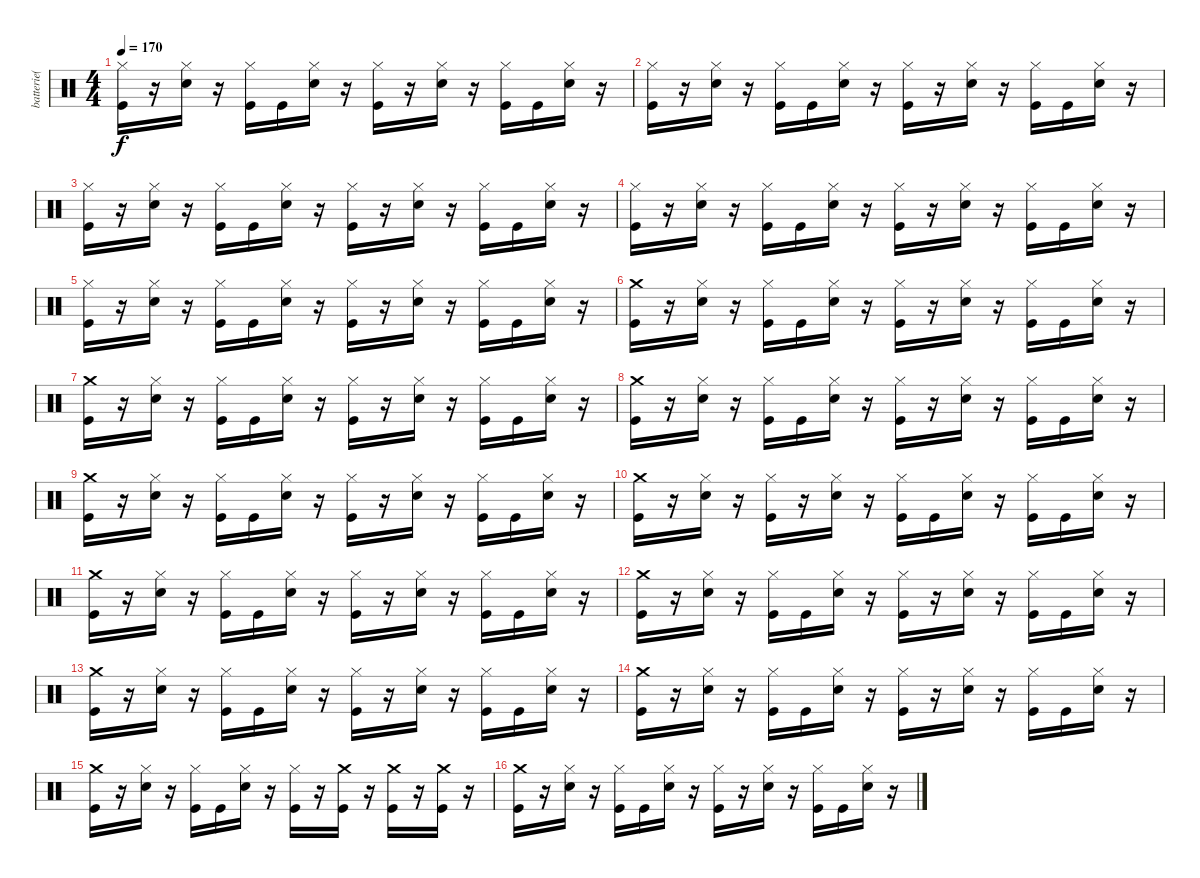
\track ("batterie( Yureesh )" "batterie( ") {instrument percussion}
\staff {score}
\articulation defaults
\ts (4 4)
\tempo 170
\clef neutral
\ks c
("Hi-Hat (closed)" "Kick (hit)").16{dy f} r.16 ("Hi-Hat (closed)" "Snare (hit) 2").16 r.16 ("Hi-Hat (closed)" "Kick (hit)").16 "Kick (hit)".16 ("Hi-Hat (closed)" "Snare (hit) 2").16 r.16 ("Hi-Hat (closed)" "Kick (hit)").16 r.16 ("Hi-Hat (closed)" "Snare (hit) 2").16 r.16 ("Hi-Hat (closed)" "Kick (hit)").16 "Kick (hit)".16 ("Hi-Hat (closed)" "Snare (hit) 2").16 r.16 |
("Hi-Hat (closed)" "Kick (hit)").16 r.16 ("Hi-Hat (closed)" "Snare (hit) 2").16 r.16 ("Hi-Hat (closed)" "Kick (hit)").16 "Kick (hit)".16 ("Hi-Hat (closed)" "Snare (hit) 2").16 r.16 ("Hi-Hat (closed)" "Kick (hit)").16 r.16 ("Hi-Hat (closed)" "Snare (hit) 2").16 r.16 ("Hi-Hat (closed)" "Kick (hit)").16 "Kick (hit)".16 ("Hi-Hat (closed)" "Snare (hit) 2").16 r.16 |
("Hi-Hat (closed)" "Kick (hit)").16 r.16 ("Hi-Hat (closed)" "Snare (hit) 2").16 r.16 ("Hi-Hat (closed)" "Kick (hit)").16 "Kick (hit)".16 ("Hi-Hat (closed)" "Snare (hit) 2").16 r.16 ("Hi-Hat (closed)" "Kick (hit)").16 r.16 ("Hi-Hat (closed)" "Snare (hit) 2").16 r.16 ("Hi-Hat (closed)" "Kick (hit)").16 "Kick (hit)".16 ("Hi-Hat (closed)" "Snare (hit) 2").16 r.16 |
("Hi-Hat (closed)" "Kick (hit)").16 r.16 ("Hi-Hat (closed)" "Snare (hit) 2").16 r.16 ("Hi-Hat (closed)" "Kick (hit)").16 "Kick (hit)".16 ("Hi-Hat (closed)" "Snare (hit) 2").16 r.16 ("Hi-Hat (closed)" "Kick (hit)").16 r.16 ("Hi-Hat (closed)" "Snare (hit) 2").16 r.16 ("Hi-Hat (closed)" "Kick (hit)").16 "Kick (hit)".16 ("Hi-Hat (closed)" "Snare (hit) 2").16 r.16 |
("Hi-Hat (closed)" "Kick (hit)").16 r.16 ("Hi-Hat (closed)" "Snare (hit) 2").16 r.16 ("Hi-Hat (closed)" "Kick (hit)").16 "Kick (hit)".16 ("Hi-Hat (closed)" "Snare (hit) 2").16 r.16 ("Hi-Hat (closed)" "Kick (hit)").16 r.16 ("Hi-Hat (closed)" "Snare (hit) 2").16 r.16 ("Hi-Hat (closed)" "Kick (hit)").16 "Kick (hit)".16 ("Hi-Hat (closed)" "Snare (hit) 2").16 r.16 |
("Crash medium (hit)" "Kick (hit)").16 r.16 ("Hi-Hat (closed)" "Snare (hit) 2").16 r.16 ("Hi-Hat (closed)" "Kick (hit)").16 "Kick (hit)".16 ("Hi-Hat (closed)" "Snare (hit) 2").16 r.16 ("Hi-Hat (closed)" "Kick (hit)").16 r.16 ("Hi-Hat (closed)" "Snare (hit) 2").16 r.16 ("Hi-Hat (closed)" "Kick (hit)").16 "Kick (hit)".16 ("Hi-Hat (closed)" "Snare (hit) 2").16 r.16 |
("Crash medium (hit)" "Kick (hit)").16 r.16 ("Hi-Hat (closed)" "Snare (hit) 2").16 r.16 ("Hi-Hat (closed)" "Kick (hit)").16 "Kick (hit)".16 ("Hi-Hat (closed)" "Snare (hit) 2").16 r.16 ("Hi-Hat (closed)" "Kick (hit)").16 r.16 ("Hi-Hat (closed)" "Snare (hit) 2").16 r.16 ("Hi-Hat (closed)" "Kick (hit)").16 "Kick (hit)".16 ("Hi-Hat (closed)" "Snare (hit) 2").16 r.16 |
("Crash medium (hit)" "Kick (hit)").16 r.16 ("Hi-Hat (closed)" "Snare (hit) 2").16 r.16 ("Hi-Hat (closed)" "Kick (hit)").16 "Kick (hit)".16 ("Hi-Hat (closed)" "Snare (hit) 2").16 r.16 ("Hi-Hat (closed)" "Kick (hit)").16 r.16 ("Hi-Hat (closed)" "Snare (hit) 2").16 r.16 ("Hi-Hat (closed)" "Kick (hit)").16 "Kick (hit)".16 ("Hi-Hat (closed)" "Snare (hit) 2").16 r.16 |
("Crash medium (hit)" "Kick (hit)").16 r.16 ("Hi-Hat (closed)" "Snare (hit) 2").16 r.16 ("Hi-Hat (closed)" "Kick (hit)").16 "Kick (hit)".16 ("Hi-Hat (closed)" "Snare (hit) 2").16 r.16 ("Hi-Hat (closed)" "Kick (hit)").16 r.16 ("Hi-Hat (closed)" "Snare (hit) 2").16 r.16 ("Hi-Hat (closed)" "Kick (hit)").16 "Kick (hit)".16 ("Hi-Hat (closed)" "Snare (hit) 2").16 r.16 |
("Crash medium (hit)" "Kick (hit)").16 r.16 ("Hi-Hat (closed)" "Snare (hit) 2").16 r.16 ("Hi-Hat (closed)" "Kick (hit)").16 r.16 ("Hi-Hat (closed)" "Snare (hit) 2").16 r.16 ("Hi-Hat (closed)" "Kick (hit)").16 "Kick (hit)".16 ("Hi-Hat (closed)" "Snare (hit) 2").16 r.16 ("Hi-Hat (closed)" "Kick (hit)").16 "Kick (hit)".16 ("Hi-Hat (closed)" "Snare (hit) 2").16 r.16 |
("Crash medium (hit)" "Kick (hit)").16 r.16 ("Hi-Hat (closed)" "Snare (hit) 2").16 r.16 ("Hi-Hat (closed)" "Kick (hit)").16 "Kick (hit)".16 ("Hi-Hat (closed)" "Snare (hit) 2").16 r.16 ("Hi-Hat (closed)" "Kick (hit)").16 r.16 ("Hi-Hat (closed)" "Snare (hit) 2").16 r.16 ("Hi-Hat (closed)" "Kick (hit)").16 "Kick (hit)".16 ("Hi-Hat (closed)" "Snare (hit) 2").16 r.16 |
("Crash medium (hit)" "Kick (hit)").16 r.16 ("Hi-Hat (closed)" "Snare (hit) 2").16 r.16 ("Hi-Hat (closed)" "Kick (hit)").16 "Kick (hit)".16 ("Hi-Hat (closed)" "Snare (hit) 2").16 r.16 ("Hi-Hat (closed)" "Kick (hit)").16 r.16 ("Hi-Hat (closed)" "Snare (hit) 2").16 r.16 ("Hi-Hat (closed)" "Kick (hit)").16 "Kick (hit)".16 ("Hi-Hat (closed)" "Snare (hit) 2").16 r.16 |
("Crash medium (hit)" "Kick (hit)").16 r.16 ("Hi-Hat (closed)" "Snare (hit) 2").16 r.16 ("Hi-Hat (closed)" "Kick (hit)").16 "Kick (hit)".16 ("Hi-Hat (closed)" "Snare (hit) 2").16 r.16 ("Hi-Hat (closed)" "Kick (hit)").16 r.16 ("Hi-Hat (closed)" "Snare (hit) 2").16 r.16 ("Hi-Hat (closed)" "Kick (hit)").16 "Kick (hit)".16 ("Hi-Hat (closed)" "Snare (hit) 2").16 r.16 |
("Crash medium (hit)" "Kick (hit)").16 r.16 ("Hi-Hat (closed)" "Snare (hit) 2").16 r.16 ("Hi-Hat (closed)" "Kick (hit)").16 "Kick (hit)".16 ("Hi-Hat (closed)" "Snare (hit) 2").16 r.16 ("Hi-Hat (closed)" "Kick (hit)").16 r.16 ("Hi-Hat (closed)" "Snare (hit) 2").16 r.16 ("Hi-Hat (closed)" "Kick (hit)").16 "Kick (hit)".16 ("Hi-Hat (closed)" "Snare (hit) 2").16 r.16 |
("Crash medium (hit)" "Kick (hit)").16 r.16 ("Hi-Hat (closed)" "Snare (hit) 2").16 r.16 ("Hi-Hat (closed)" "Kick (hit)").16 "Kick (hit)".16 ("Hi-Hat (closed)" "Snare (hit) 2").16 r.16 ("Hi-Hat (closed)" "Kick (hit)").16 r.16 ("Crash medium (hit)" "Kick (hit)").16 r.16 ("Crash medium (hit)" "Kick (hit)").16 r.16 ("Crash medium (hit)" "Kick (hit)").16 r.16 |
("Crash medium (hit)" "Kick (hit)").16 r.16 ("Hi-Hat (closed)" "Snare (hit) 2").16 r.16 ("Hi-Hat (closed)" "Kick (hit)").16 "Kick (hit)".16 ("Hi-Hat (closed)" "Snare (hit) 2").16 r.16 ("Hi-Hat (closed)" "Kick (hit)").16 r.16 ("Hi-Hat (closed)" "Snare (hit) 2").16 r.16 ("Hi-Hat (closed)" "Kick (hit)").16 "Kick (hit)".16 ("Hi-Hat (closed)" "Snare (hit) 2").16 r.16
